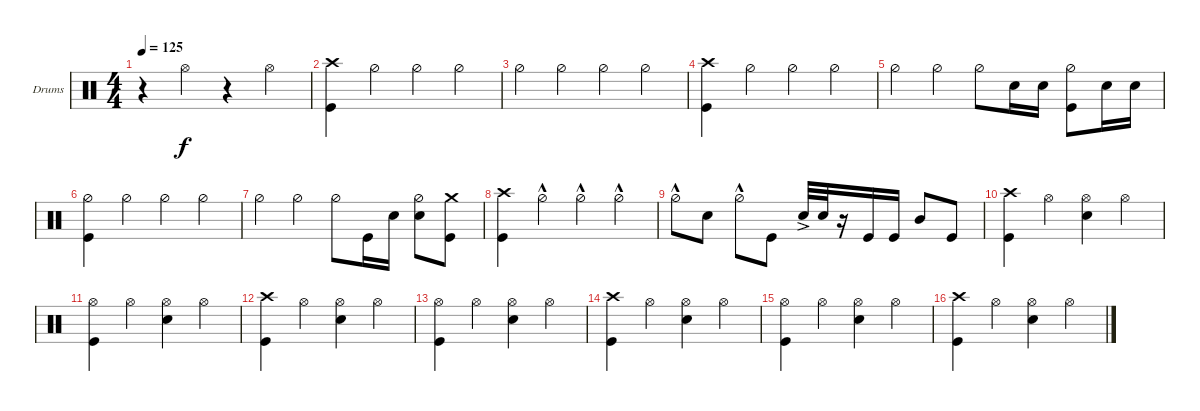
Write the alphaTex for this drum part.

\defaultSystemsLayout 4
\bracketExtendMode groupsimilarinstruments
\firstSystemTrackNameOrientation horizontal
\otherSystemsTrackNameOrientation horizontal
\track ("Drumkit" "Drums") {instrument percussion}
\staff {score}
\articulation defaults
\ts (4 4)
\tempo 125
\clef neutral
\ks c
r.4{dy f} "Hi-Hat (open)".4 r.4 "Hi-Hat (open)".4 |
("Kick (hit)" "Crash high (hit)").4 "Hi-Hat (half)".4 "Hi-Hat (half)".4 "Hi-Hat (half)".4 |
\scale
0.269598 "Hi-Hat (half)".4 "Hi-Hat (half)".4 "Hi-Hat (half)".4 "Hi-Hat (half)".4 |
\scale
0.229446 ("Kick (hit)" "Crash high (hit)").4 "Hi-Hat (half)".4 "Hi-Hat (half)".4 "Hi-Hat (half)".4 |
\scale
0.500956 "Hi-Hat (half)".4 "Hi-Hat (half)".4 "Hi-Hat (half)".8 "Snare (hit) 2".16 "Snare (hit) 2".16 ("Hi-Hat (half)" "Kick (hit)").8 "Snare (hit) 2".16 "Snare (hit) 2".16 |
("Hi-Hat (half)" "Kick (hit)").4 "Hi-Hat (half)".4 "Hi-Hat (half)".4 "Hi-Hat (half)".4 |
"Hi-Hat (half)".4 "Hi-Hat (half)".4 "Hi-Hat (half)".8 "Kick (hit)".16 "Snare (hit) 2".16 ("Snare (hit) 2" "Hi-Hat (half)").8 ("Kick (hit)" "Crash medium (hit)").8 |
("Kick (hit)" "Crash high (hit)").4 "Hi-Hat (half)"{hac}.4 "Hi-Hat (half)"{hac}.4 "Hi-Hat (half)"{hac}.4 |
"Hi-Hat (half)"{hac}.8 "Snare (hit) 2".8 "Hi-Hat (half)"{hac}.8 "Kick (hit)".8 "Snare (hit) 2"{ac}.32 "Snare (hit) 2".32 r.16 "Kick (hit)".16 "Kick (hit)".16 "Mid Tom (hit)".8 "Kick (hit)".8 |
("Kick (hit)" "Crash high (hit)").4 "Hi-Hat (open)".4 ("Snare (hit) 2" "Hi-Hat (open)").4 "Hi-Hat (open)".4 |
("Kick (hit)" "Hi-Hat (open)").4 "Hi-Hat (open)".4 ("Snare (hit) 2" "Hi-Hat (open)").4 "Hi-Hat (open)".4 |
("Kick (hit)" "Crash high (hit)").4 "Hi-Hat (open)".4 ("Snare (hit) 2" "Hi-Hat (open)").4 "Hi-Hat (open)".4 |
("Kick (hit)" "Hi-Hat (open)").4 "Hi-Hat (open)".4 ("Snare (hit) 2" "Hi-Hat (open)").4 "Hi-Hat (open)".4 |
("Kick (hit)" "Crash high (hit)").4 "Hi-Hat (open)".4 ("Snare (hit) 2" "Hi-Hat (open)").4 "Hi-Hat (open)".4 |
("Kick (hit)" "Hi-Hat (open)").4 "Hi-Hat (open)".4 ("Snare (hit) 2" "Hi-Hat (open)").4 "Hi-Hat (open)".4 |
("Kick (hit)" "Crash high (hit)").4 "Hi-Hat (open)".4 ("Snare (hit) 2" "Hi-Hat (open)").4 "Hi-Hat (open)".4
